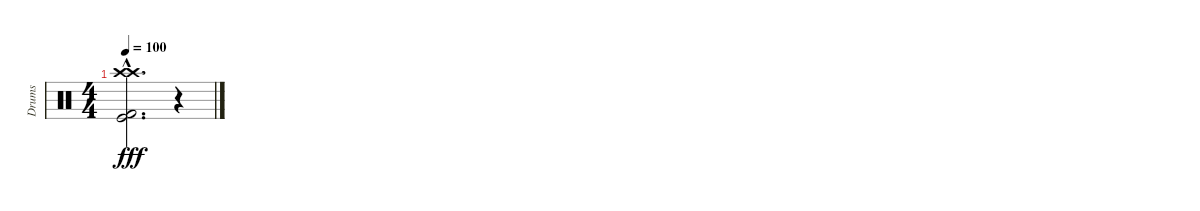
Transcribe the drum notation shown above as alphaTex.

\track ("Drums" "Drums") {instrument percussion}
\staff {score}
\articulation defaults
\ts (4 4)
\tempo 100
\clef neutral
\ks c
("Crash high (hit)"{hac} "Crash high (hit)"{hac} "Kick (hit) 2"{hac} "Kick (hit)"{hac}).2{d dy fff} r.4
